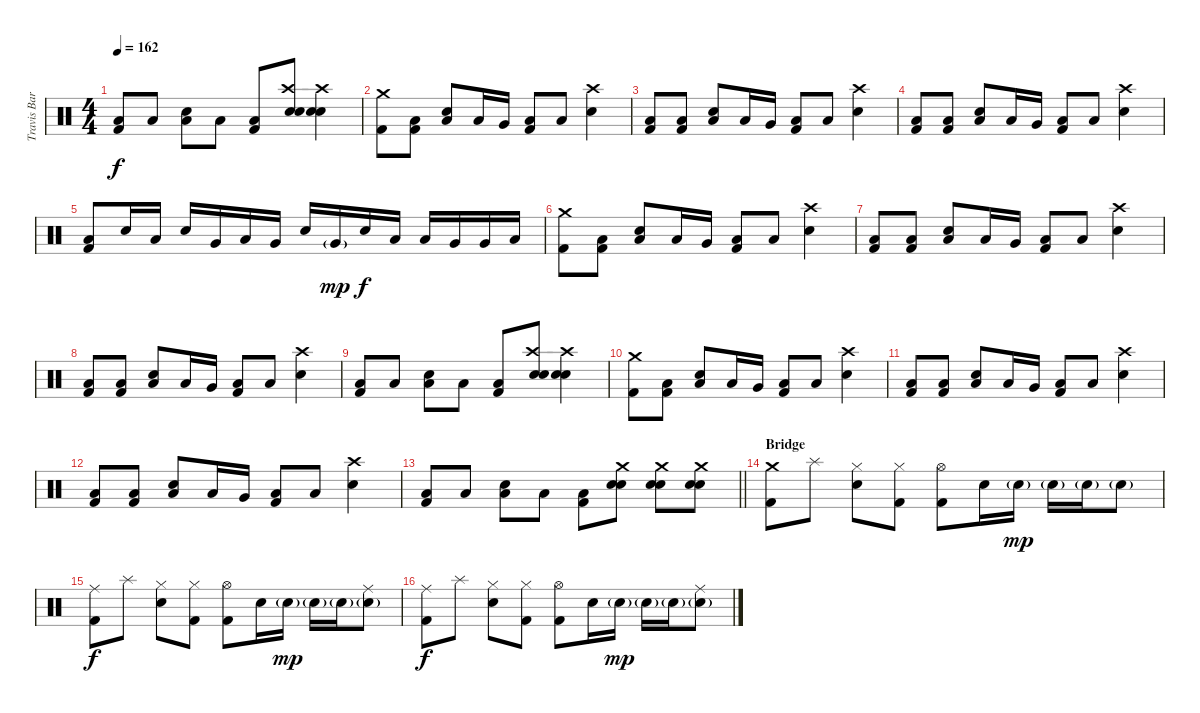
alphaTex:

\track ("Travis Barker - Drums" "Travis Bar") {instrument percussion}
\staff {score}
\articulation defaults
\ts (4 4)
\tempo 162
\clef neutral
\ks c
("Low Floor Tom (hit)" "Kick (hit) 2").8{dy f} "Low Floor Tom (hit)".8 ("Low Floor Tom (hit)" "Electric Snare (hit)").8 "Low Floor Tom (hit)".8 ("Low Floor Tom (hit)" "Kick (hit) 2").8 ("Crash high (hit)" "Hand Clap (hit)" "Electric Snare (hit)").8 ("Crash high (hit)" "Hand Clap (hit)" "Electric Snare (hit)").4 |
("Crash medium (hit)" "Kick (hit) 2").8 ("Low Floor Tom (hit)" "Kick (hit) 2").8 ("Low Floor Tom (hit)" "Electric Snare (hit)").8 "Low Tom (hit)".16 "Very Low Tom (hit)".16 ("Low Floor Tom (hit)" "Kick (hit) 2").8 "Low Floor Tom (hit)".8 ("Crash high (hit)" "Electric Snare (hit)").4 |
("Low Floor Tom (hit)" "Kick (hit) 2").8 ("Low Floor Tom (hit)" "Kick (hit) 2").8 ("Low Floor Tom (hit)" "Electric Snare (hit)").8 "Low Tom (hit)".16 "Very Low Tom (hit)".16 ("Low Floor Tom (hit)" "Kick (hit) 2").8 "Low Floor Tom (hit)".8 ("Crash high (hit)" "Electric Snare (hit)").4 |
("Low Floor Tom (hit)" "Kick (hit) 2").8 ("Low Floor Tom (hit)" "Kick (hit) 2").8 ("Low Floor Tom (hit)" "Electric Snare (hit)").8 "Low Tom (hit)".16 "Very Low Tom (hit)".16 ("Low Floor Tom (hit)" "Kick (hit) 2").8 "Low Floor Tom (hit)".8 ("Crash high (hit)" "Electric Snare (hit)").4 |
("Low Tom (hit)" "Kick (hit) 2").8 "Electric Snare (hit)".16 "Low Tom (hit)".16 "Electric Snare (hit)".16 "Very Low Tom (hit)".16 "Low Tom (hit)".16 "Very Low Tom (hit)".16 "Electric Snare (hit)".16 "Very Low Tom (hit)"{g}.16{dy mp} "Electric Snare (hit)".16{dy f} "Low Tom (hit)".16 "Low Tom (hit)".16 "Very Low Tom (hit)".16 "Very Low Tom (hit)".16 "Low Floor Tom (hit)".16 |
("Crash medium (hit)" "Kick (hit) 2").8 ("Low Floor Tom (hit)" "Kick (hit) 2").8 ("Low Floor Tom (hit)" "Electric Snare (hit)").8 "Low Tom (hit)".16 "Very Low Tom (hit)".16 ("Low Floor Tom (hit)" "Kick (hit) 2").8 "Low Floor Tom (hit)".8 ("Crash high (hit)" "Electric Snare (hit)").4 |
("Low Floor Tom (hit)" "Kick (hit) 2").8 ("Low Floor Tom (hit)" "Kick (hit) 2").8 ("Low Floor Tom (hit)" "Electric Snare (hit)").8 "Low Tom (hit)".16 "Very Low Tom (hit)".16 ("Low Floor Tom (hit)" "Kick (hit) 2").8 "Low Floor Tom (hit)".8 ("Crash high (hit)" "Electric Snare (hit)").4 |
("Low Floor Tom (hit)" "Kick (hit) 2").8 ("Low Floor Tom (hit)" "Kick (hit) 2").8 ("Low Floor Tom (hit)" "Electric Snare (hit)").8 "Low Tom (hit)".16 "Very Low Tom (hit)".16 ("Low Floor Tom (hit)" "Kick (hit) 2").8 "Low Floor Tom (hit)".8 ("Crash high (hit)" "Electric Snare (hit)").4 |
("Low Floor Tom (hit)" "Kick (hit) 2").8 "Low Floor Tom (hit)".8 ("Low Floor Tom (hit)" "Electric Snare (hit)").8 "Low Floor Tom (hit)".8 ("Low Floor Tom (hit)" "Kick (hit) 2").8 ("Crash high (hit)" "Hand Clap (hit)" "Electric Snare (hit)").8 ("Crash high (hit)" "Hand Clap (hit)" "Electric Snare (hit)").4 |
("Crash medium (hit)" "Kick (hit) 2").8 ("Low Floor Tom (hit)" "Kick (hit) 2").8 ("Low Floor Tom (hit)" "Electric Snare (hit)").8 "Low Tom (hit)".16 "Very Low Tom (hit)".16 ("Low Floor Tom (hit)" "Kick (hit) 2").8 "Low Floor Tom (hit)".8 ("Crash high (hit)" "Electric Snare (hit)").4 |
("Low Floor Tom (hit)" "Kick (hit) 2").8 ("Low Floor Tom (hit)" "Kick (hit) 2").8 ("Low Floor Tom (hit)" "Electric Snare (hit)").8 "Low Tom (hit)".16 "Very Low Tom (hit)".16 ("Low Floor Tom (hit)" "Kick (hit) 2").8 "Low Floor Tom (hit)".8 ("Crash high (hit)" "Electric Snare (hit)").4 |
("Low Floor Tom (hit)" "Kick (hit) 2").8 ("Low Floor Tom (hit)" "Kick (hit) 2").8 ("Low Floor Tom (hit)" "Electric Snare (hit)").8 "Low Tom (hit)".16 "Very Low Tom (hit)".16 ("Low Floor Tom (hit)" "Kick (hit) 2").8 "Low Floor Tom (hit)".8 ("Crash high (hit)" "Electric Snare (hit)").4 |
\barLineRight lightlight
("Low Floor Tom (hit)" "Kick (hit) 2").8 "Low Floor Tom (hit)".8 ("Low Floor Tom (hit)" "Electric Snare (hit)").8 "Low Floor Tom (hit)".8 ("Low Floor Tom (hit)" "Kick (hit) 2").8 ("Crash medium (hit)" "Hand Clap (hit)" "Electric Snare (hit)").8 ("Crash medium (hit)" "Hand Clap (hit)" "Electric Snare (hit)").8 ("Crash medium (hit)" "Hand Clap (hit)" "Electric Snare (hit)").8 |
\section ("" "Bridge")
("Crash medium (hit)" "Kick (hit) 2").8 "Splash (hit)".8 ("Hi-Hat (closed)" "Electric Snare (hit)").8 ("Hi-Hat (closed)" "Kick (hit) 2").8 ("Hi-Hat (open)" "Kick (hit) 2").8 "Electric Snare (hit)".16 "Electric Snare (hit)"{g}.16{dy mp} "Electric Snare (hit)"{g}.16 "Electric Snare (hit)"{g}.16 "Electric Snare (hit)"{g}.8 |
("Ride (middle)" "Kick (hit) 2").8{dy f} "Splash (hit)".8 ("Hi-Hat (closed)" "Electric Snare (hit)").8 ("Hi-Hat (closed)" "Kick (hit) 2").8 ("Hi-Hat (open)" "Kick (hit) 2").8 "Electric Snare (hit)".16 "Electric Snare (hit)"{g}.16{dy mp} "Electric Snare (hit)"{g}.16 "Electric Snare (hit)"{g}.16 ("Ride (middle)" "Electric Snare (hit)"{g}).8 |
("Ride (middle)" "Kick (hit) 2").8{dy f} "Splash (hit)".8 ("Hi-Hat (closed)" "Electric Snare (hit)").8 ("Hi-Hat (closed)" "Kick (hit) 2").8 ("Hi-Hat (open)" "Kick (hit) 2").8 "Electric Snare (hit)".16 "Electric Snare (hit)"{g}.16{dy mp} "Electric Snare (hit)"{g}.16 "Electric Snare (hit)"{g}.16 ("Ride (middle)" "Electric Snare (hit)"{g}).8
